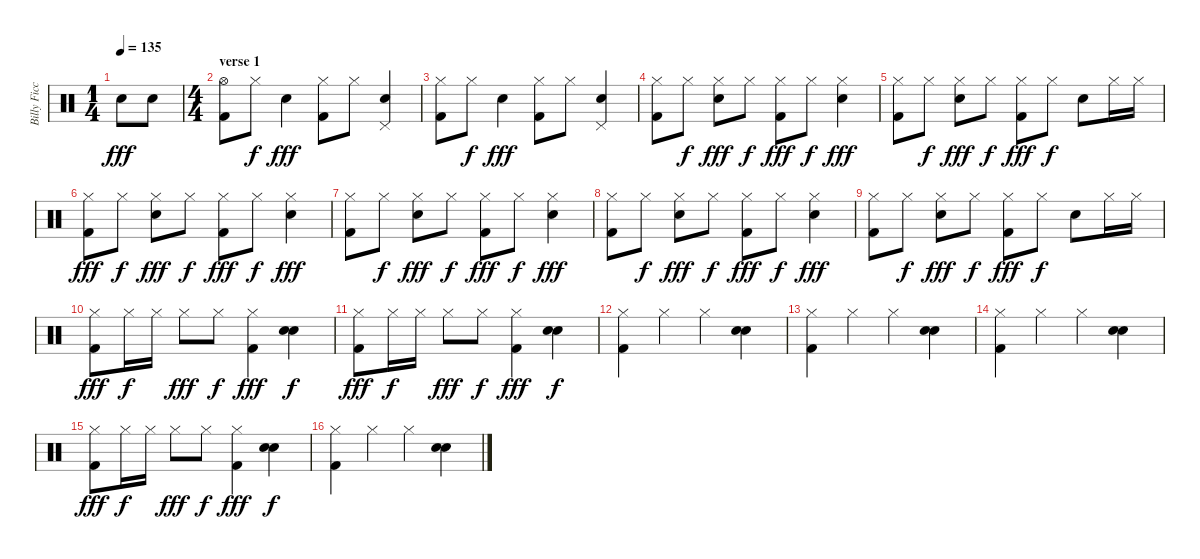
\track ("Billy Ficca" "Billy Ficc") {instrument percussion}
\staff {score}
\articulation defaults
\ts (1 4)
\tempo 135
\clef neutral
\ks c "Electric Snare (hit)".8{dy fff} "Electric Snare (hit)".8
|
\ts (4 4)
\section ("" "verse 1")
("Hi-Hat (open)" "Kick (hit) 2").8 "Hi-Hat (closed)".8{dy f} "Electric Snare (hit)".4{dy fff} ("Hi-Hat (closed)" "Kick (hit) 2").8 "Hi-Hat (closed)".8 ("Electric Snare (hit)" "Pedal Hi-Hat (hit)").4 |
("Hi-Hat (closed)" "Kick (hit) 2").8 "Hi-Hat (closed)".8{dy f} "Electric Snare (hit)".4{dy fff} ("Hi-Hat (closed)" "Kick (hit) 2").8 "Hi-Hat (closed)".8 ("Electric Snare (hit)" "Pedal Hi-Hat (hit)").4 |
("Hi-Hat (closed)" "Kick (hit) 2").8 "Hi-Hat (closed)".8{dy f} ("Hi-Hat (closed)" "Electric Snare (hit)").8{dy fff} "Hi-Hat (closed)".8{dy f} ("Hi-Hat (closed)" "Kick (hit) 2").8{dy fff} "Hi-Hat (closed)".8{dy f} ("Hi-Hat (closed)" "Electric Snare (hit)").4{dy fff} |
("Hi-Hat (closed)" "Kick (hit) 2").8 "Hi-Hat (closed)".8{dy f} ("Hi-Hat (closed)" "Electric Snare (hit)").8{dy fff} "Hi-Hat (closed)".8{dy f} ("Hi-Hat (closed)" "Kick (hit) 2").8{dy fff} "Hi-Hat (closed)".8{dy f} "Electric Snare (hit)".8 "Hi-Hat (closed)".16 "Hi-Hat (closed)".16 |
("Hi-Hat (closed)" "Kick (hit) 2").8{dy fff} "Hi-Hat (closed)".8{dy f} ("Hi-Hat (closed)" "Electric Snare (hit)").8{dy fff} "Hi-Hat (closed)".8{dy f} ("Hi-Hat (closed)" "Kick (hit) 2").8{dy fff} "Hi-Hat (closed)".8{dy f} ("Hi-Hat (closed)" "Electric Snare (hit)").4{dy fff} |
("Hi-Hat (closed)" "Kick (hit) 2").8 "Hi-Hat (closed)".8{dy f} ("Hi-Hat (closed)" "Electric Snare (hit)").8{dy fff} "Hi-Hat (closed)".8{dy f} ("Hi-Hat (closed)" "Kick (hit) 2").8{dy fff} "Hi-Hat (closed)".8{dy f} ("Hi-Hat (closed)" "Electric Snare (hit)").4{dy fff} |
("Hi-Hat (closed)" "Kick (hit) 2").8 "Hi-Hat (closed)".8{dy f} ("Hi-Hat (closed)" "Electric Snare (hit)").8{dy fff} "Hi-Hat (closed)".8{dy f} ("Hi-Hat (closed)" "Kick (hit) 2").8{dy fff} "Hi-Hat (closed)".8{dy f} ("Hi-Hat (closed)" "Electric Snare (hit)").4{dy fff} |
("Hi-Hat (closed)" "Kick (hit) 2").8 "Hi-Hat (closed)".8{dy f} ("Hi-Hat (closed)" "Electric Snare (hit)").8{dy fff} "Hi-Hat (closed)".8{dy f} ("Hi-Hat (closed)" "Kick (hit) 2").8{dy fff} "Hi-Hat (closed)".8{dy f} "Electric Snare (hit)".8 "Hi-Hat (closed)".16 "Hi-Hat (closed)".16 |
("Hi-Hat (closed)" "Kick (hit) 2").8{dy fff} "Hi-Hat (closed)".16{dy f} "Hi-Hat (closed)".16 "Hi-Hat (closed)".8{dy fff} "Hi-Hat (closed)".8{dy f} ("Hi-Hat (closed)" "Kick (hit) 2").4{dy fff} ("Electric Snare (hit)" "Electric Snare (hit)").4{dy f} |
("Hi-Hat (closed)" "Kick (hit) 2").8{dy fff} "Hi-Hat (closed)".16{dy f} "Hi-Hat (closed)".16 "Hi-Hat (closed)".8{dy fff} "Hi-Hat (closed)".8{dy f} ("Hi-Hat (closed)" "Kick (hit) 2").4{dy fff} ("Electric Snare (hit)" "Electric Snare (hit)").4{dy f} |
("Hi-Hat (closed)" "Kick (hit) 2").4 "Hi-Hat (closed)".4 "Hi-Hat (closed)".4 ("Electric Snare (hit)" "Electric Snare (hit)").4 |
("Hi-Hat (closed)" "Kick (hit) 2").4 "Hi-Hat (closed)".4 "Hi-Hat (closed)".4 ("Electric Snare (hit)" "Electric Snare (hit)").4 |
("Hi-Hat (closed)" "Kick (hit) 2").4 "Hi-Hat (closed)".4 "Hi-Hat (closed)".4 ("Electric Snare (hit)" "Electric Snare (hit)").4 |
("Hi-Hat (closed)" "Kick (hit) 2").8{dy fff} "Hi-Hat (closed)".16{dy f} "Hi-Hat (closed)".16 "Hi-Hat (closed)".8{dy fff} "Hi-Hat (closed)".8{dy f} ("Hi-Hat (closed)" "Kick (hit) 2").4{dy fff} ("Electric Snare (hit)" "Electric Snare (hit)").4{dy f} |
("Hi-Hat (closed)" "Kick (hit) 2").4 "Hi-Hat (closed)".4 "Hi-Hat (closed)".4 ("Electric Snare (hit)" "Electric Snare (hit)").4
